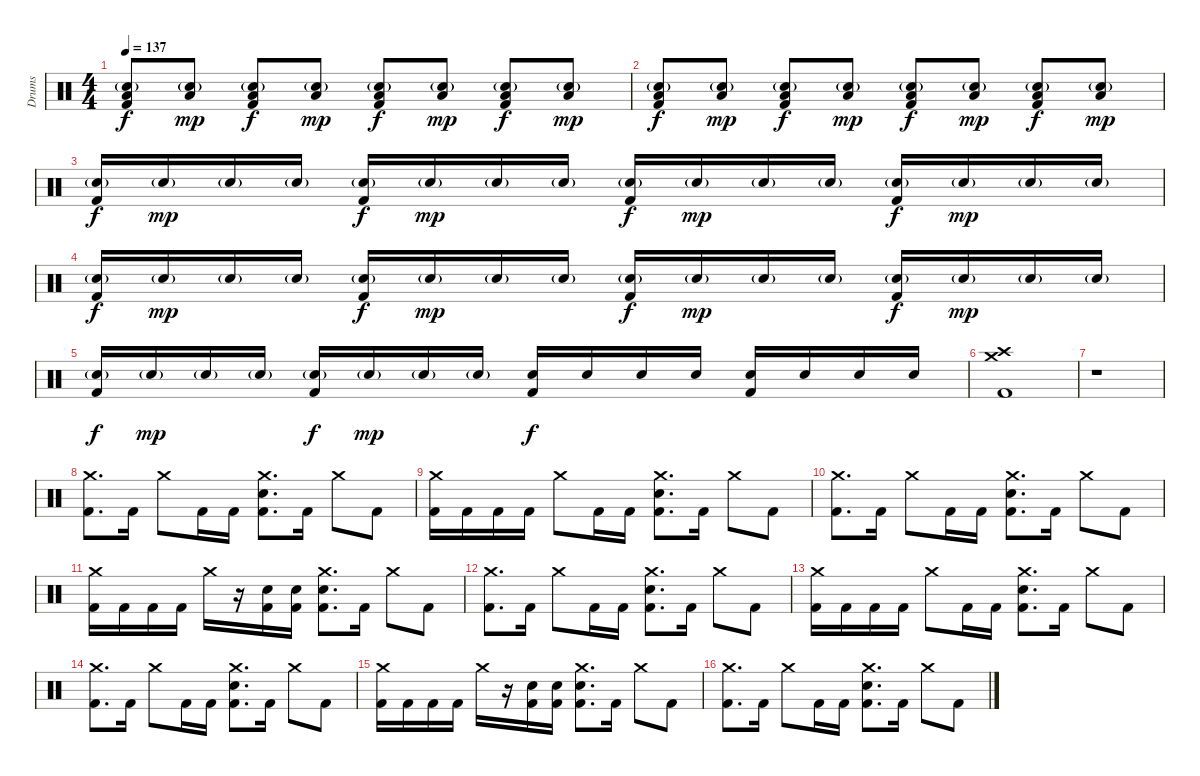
\track ("Drums" "Drums") {instrument percussion}
\staff {score}
\articulation defaults
\ts (4 4)
\tempo 137
\clef neutral
\ks c
("Low Floor Tom (hit)" "Snare (hit) 2"{g} "Kick (hit) 2").8{dy f} ("Low Floor Tom (hit)" "Snare (hit) 2"{g}).8{dy mp} ("Low Floor Tom (hit)" "Snare (hit) 2"{g} "Kick (hit) 2").8{dy f} ("Low Floor Tom (hit)" "Snare (hit) 2"{g}).8{dy mp} ("Low Floor Tom (hit)" "Snare (hit) 2"{g} "Kick (hit) 2").8{dy f} ("Low Floor Tom (hit)" "Snare (hit) 2"{g}).8{dy mp} ("Low Floor Tom (hit)" "Snare (hit) 2"{g} "Kick (hit) 2").8{dy f} ("Low Floor Tom (hit)" "Snare (hit) 2"{g}).8{dy mp} |
("Low Floor Tom (hit)" "Snare (hit) 2"{g} "Kick (hit) 2").8{dy f} ("Low Floor Tom (hit)" "Snare (hit) 2"{g}).8{dy mp} ("Low Floor Tom (hit)" "Snare (hit) 2"{g} "Kick (hit) 2").8{dy f} ("Low Floor Tom (hit)" "Snare (hit) 2"{g}).8{dy mp} ("Low Floor Tom (hit)" "Snare (hit) 2"{g} "Kick (hit) 2").8{dy f} ("Low Floor Tom (hit)" "Snare (hit) 2"{g}).8{dy mp} ("Low Floor Tom (hit)" "Snare (hit) 2"{g} "Kick (hit) 2").8{dy f} ("Low Floor Tom (hit)" "Snare (hit) 2"{g}).8{dy mp} |
("Snare (hit) 2"{g} "Kick (hit) 2").16{dy f} "Snare (hit) 2"{g}.16{dy mp} "Snare (hit) 2"{g}.16 "Snare (hit) 2"{g}.16 ("Snare (hit) 2"{g} "Kick (hit) 2").16{dy f} "Snare (hit) 2"{g}.16{dy mp} "Snare (hit) 2"{g}.16 "Snare (hit) 2"{g}.16 ("Snare (hit) 2"{g} "Kick (hit) 2").16{dy f} "Snare (hit) 2"{g}.16{dy mp} "Snare (hit) 2"{g}.16 "Snare (hit) 2"{g}.16 ("Snare (hit) 2"{g} "Kick (hit) 2").16{dy f} "Snare (hit) 2"{g}.16{dy mp} "Snare (hit) 2"{g}.16 "Snare (hit) 2"{g}.16 |
("Snare (hit) 2"{g} "Kick (hit) 2").16{dy f} "Snare (hit) 2"{g}.16{dy mp} "Snare (hit) 2"{g}.16 "Snare (hit) 2"{g}.16 ("Snare (hit) 2"{g} "Kick (hit) 2").16{dy f} "Snare (hit) 2"{g}.16{dy mp} "Snare (hit) 2"{g}.16 "Snare (hit) 2"{g}.16 ("Snare (hit) 2"{g} "Kick (hit) 2").16{dy f} "Snare (hit) 2"{g}.16{dy mp} "Snare (hit) 2"{g}.16 "Snare (hit) 2"{g}.16 ("Snare (hit) 2"{g} "Kick (hit) 2").16{dy f} "Snare (hit) 2"{g}.16{dy mp} "Snare (hit) 2"{g}.16 "Snare (hit) 2"{g}.16 |
("Snare (hit) 2"{g} "Kick (hit) 2").16{dy f} "Snare (hit) 2"{g}.16{dy mp} "Snare (hit) 2"{g}.16 "Snare (hit) 2"{g}.16 ("Snare (hit) 2"{g} "Kick (hit) 2").16{dy f} "Snare (hit) 2"{g}.16{dy mp} "Snare (hit) 2"{g}.16 "Snare (hit) 2"{g}.16 ("Electric Snare (hit)" "Kick (hit) 2").16{dy f} "Electric Snare (hit)".16 "Electric Snare (hit)".16 "Electric Snare (hit)".16 ("Electric Snare (hit)" "Kick (hit) 2").16 "Electric Snare (hit)".16 "Electric Snare (hit)".16 "Electric Snare (hit)".16 |
("Crash medium (hit)" "Crash high (hit)" "Kick (hit) 2").1 |
r.1 |
("Crash medium (hit)" "Kick (hit) 2").8{d} "Kick (hit) 2".16 "Crash medium (hit)".8 "Kick (hit) 2".16 "Kick (hit) 2".16 ("Crash medium (hit)" "Electric Snare (hit)" "Kick (hit) 2").8{d} "Kick (hit) 2".16 "Crash medium (hit)".8 "Kick (hit) 2".8 |
("Crash medium (hit)" "Kick (hit) 2").16 "Kick (hit) 2".16 "Kick (hit) 2".16 "Kick (hit) 2".16 "Crash medium (hit)".8 "Kick (hit) 2".16 "Kick (hit) 2".16 ("Crash medium (hit)" "Electric Snare (hit)" "Kick (hit) 2").8{d} "Kick (hit) 2".16 "Crash medium (hit)".8 "Kick (hit) 2".8 |
("Crash medium (hit)" "Kick (hit) 2").8{d} "Kick (hit) 2".16 "Crash medium (hit)".8 "Kick (hit) 2".16 "Kick (hit) 2".16 ("Crash medium (hit)" "Electric Snare (hit)" "Kick (hit) 2").8{d} "Kick (hit) 2".16 "Crash medium (hit)".8 "Kick (hit) 2".8 |
("Crash medium (hit)" "Kick (hit) 2").16 "Kick (hit) 2".16 "Kick (hit) 2".16 "Kick (hit) 2".16 "Crash medium (hit)".16 r.16 ("Electric Snare (hit)" "Kick (hit) 2").16 ("Electric Snare (hit)" "Kick (hit) 2").16 ("Crash medium (hit)" "Electric Snare (hit)" "Kick (hit) 2").8{d} "Kick (hit) 2".16 "Crash medium (hit)".8 "Kick (hit) 2".8 |
("Crash medium (hit)" "Kick (hit) 2").8{d} "Kick (hit) 2".16 "Crash medium (hit)".8 "Kick (hit) 2".16 "Kick (hit) 2".16 ("Crash medium (hit)" "Electric Snare (hit)" "Kick (hit) 2").8{d} "Kick (hit) 2".16 "Crash medium (hit)".8 "Kick (hit) 2".8 |
("Crash medium (hit)" "Kick (hit) 2").16 "Kick (hit) 2".16 "Kick (hit) 2".16 "Kick (hit) 2".16 "Crash medium (hit)".8 "Kick (hit) 2".16 "Kick (hit) 2".16 ("Crash medium (hit)" "Electric Snare (hit)" "Kick (hit) 2").8{d} "Kick (hit) 2".16 "Crash medium (hit)".8 "Kick (hit) 2".8 |
("Crash medium (hit)" "Kick (hit) 2").8{d} "Kick (hit) 2".16 "Crash medium (hit)".8 "Kick (hit) 2".16 "Kick (hit) 2".16 ("Crash medium (hit)" "Electric Snare (hit)" "Kick (hit) 2").8{d} "Kick (hit) 2".16 "Crash medium (hit)".8 "Kick (hit) 2".8 |
("Crash medium (hit)" "Kick (hit) 2").16 "Kick (hit) 2".16 "Kick (hit) 2".16 "Kick (hit) 2".16 "Crash medium (hit)".16 r.16 ("Electric Snare (hit)" "Kick (hit) 2").16 ("Electric Snare (hit)" "Kick (hit) 2").16 ("Crash medium (hit)" "Electric Snare (hit)" "Kick (hit) 2").8{d} "Kick (hit) 2".16 "Crash medium (hit)".8 "Kick (hit) 2".8 |
("Crash medium (hit)" "Kick (hit) 2").8{d} "Kick (hit) 2".16 "Crash medium (hit)".8 "Kick (hit) 2".16 "Kick (hit) 2".16 ("Crash medium (hit)" "Electric Snare (hit)" "Kick (hit) 2").8{d} "Kick (hit) 2".16 "Crash medium (hit)".8 "Kick (hit) 2".8
